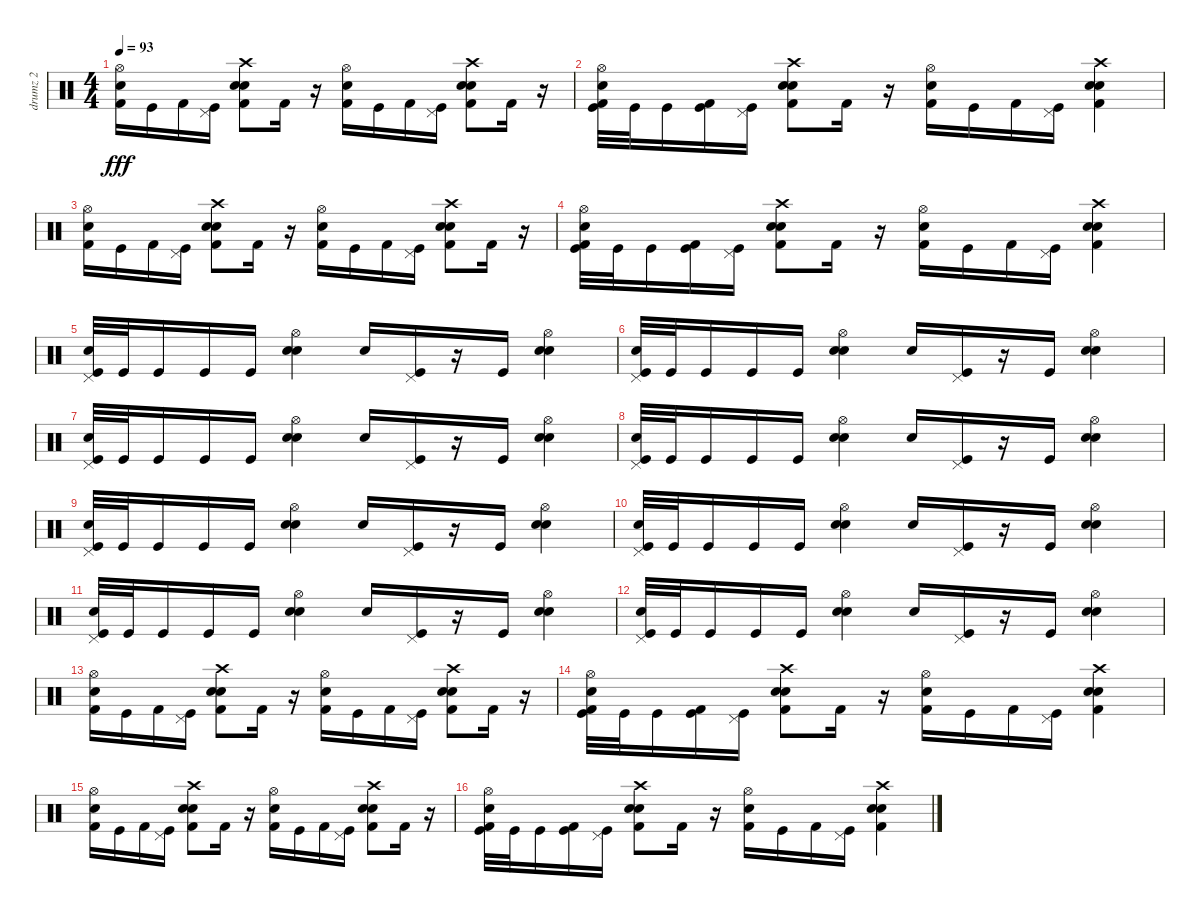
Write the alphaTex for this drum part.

\track ("drumz 2" "drumz 2") {instrument percussion}
\staff {score}
\articulation defaults
\ts (4 4)
\tempo 93
\clef neutral
\ks c
("Hi-Hat (open)" "Hand Clap (hit)" "Kick (hit) 2").16{dy fff} "Kick (hit)".16 "Kick (hit) 2".16 ("Kick (hit)" "Pedal Hi-Hat (hit)").16 ("Snare (hit) 2" "Crash high (hit)" "Hand Clap (hit)" "Kick (hit) 2").8 "Kick (hit) 2".16 r.16 ("Hi-Hat (open)" "Hand Clap (hit)" "Kick (hit) 2").16 "Kick (hit)".16 "Kick (hit) 2".16 ("Kick (hit)" "Pedal Hi-Hat (hit)").16 ("Snare (hit) 2" "Crash high (hit)" "Hand Clap (hit)" "Kick (hit) 2").8 "Kick (hit) 2".16 r.16 |
("Kick (hit)" "Hand Clap (hit)" "Hi-Hat (open)" "Kick (hit) 2").32 "Kick (hit)".32 "Kick (hit)".16 ("Kick (hit)" "Kick (hit) 2").16 ("Kick (hit)" "Pedal Hi-Hat (hit)").16 ("Snare (hit) 2" "Hand Clap (hit)" "Crash high (hit)" "Kick (hit) 2").8 "Kick (hit) 2".16 r.16 ("Hand Clap (hit)" "Hi-Hat (open)" "Kick (hit) 2").16 "Kick (hit)".16 "Kick (hit) 2".16 ("Kick (hit)" "Pedal Hi-Hat (hit)").16 ("Snare (hit) 2" "Hand Clap (hit)" "Crash high (hit)" "Kick (hit) 2").4 |
("Hi-Hat (open)" "Hand Clap (hit)" "Kick (hit) 2").16 "Kick (hit)".16 "Kick (hit) 2".16 ("Kick (hit)" "Pedal Hi-Hat (hit)").16 ("Snare (hit) 2" "Crash high (hit)" "Hand Clap (hit)" "Kick (hit) 2").8 "Kick (hit) 2".16 r.16 ("Hi-Hat (open)" "Hand Clap (hit)" "Kick (hit) 2").16 "Kick (hit)".16 "Kick (hit) 2".16 ("Kick (hit)" "Pedal Hi-Hat (hit)").16 ("Snare (hit) 2" "Crash high (hit)" "Hand Clap (hit)" "Kick (hit) 2").8 "Kick (hit) 2".16 r.16 |
("Kick (hit)" "Hand Clap (hit)" "Hi-Hat (open)" "Kick (hit) 2").32 "Kick (hit)".32 "Kick (hit)".16 ("Kick (hit)" "Kick (hit) 2").16 ("Kick (hit)" "Pedal Hi-Hat (hit)").16 ("Snare (hit) 2" "Hand Clap (hit)" "Crash high (hit)" "Kick (hit) 2").8 "Kick (hit) 2".16 r.16 ("Hand Clap (hit)" "Hi-Hat (open)" "Kick (hit) 2").16 "Kick (hit)".16 "Kick (hit) 2".16 ("Kick (hit)" "Pedal Hi-Hat (hit)").16 ("Snare (hit) 2" "Hand Clap (hit)" "Crash high (hit)" "Kick (hit) 2").4 |
("Kick (hit)" "Pedal Hi-Hat (hit)" "Hand Clap (hit)").32 "Kick (hit)".32 "Kick (hit)".16 "Kick (hit)".16 "Kick (hit)".16 ("Snare (hit) 2" "Hi-Hat (open)" "Hand Clap (hit)").4 "Hand Clap (hit)".16 ("Kick (hit)" "Pedal Hi-Hat (hit)").16 r.16 "Kick (hit)".16 ("Snare (hit) 2" "Hi-Hat (open)" "Hand Clap (hit)").4 |
("Kick (hit)" "Pedal Hi-Hat (hit)" "Hand Clap (hit)").32 "Kick (hit)".32 "Kick (hit)".16 "Kick (hit)".16 "Kick (hit)".16 ("Snare (hit) 2" "Hi-Hat (open)" "Hand Clap (hit)").4 "Hand Clap (hit)".16 ("Kick (hit)" "Pedal Hi-Hat (hit)").16 r.16 "Kick (hit)".16 ("Snare (hit) 2" "Hi-Hat (open)" "Hand Clap (hit)").4 |
("Kick (hit)" "Pedal Hi-Hat (hit)" "Hand Clap (hit)").32 "Kick (hit)".32 "Kick (hit)".16 "Kick (hit)".16 "Kick (hit)".16 ("Snare (hit) 2" "Hi-Hat (open)" "Hand Clap (hit)").4 "Hand Clap (hit)".16 ("Kick (hit)" "Pedal Hi-Hat (hit)").16 r.16 "Kick (hit)".16 ("Snare (hit) 2" "Hi-Hat (open)" "Hand Clap (hit)").4 |
("Kick (hit)" "Pedal Hi-Hat (hit)" "Hand Clap (hit)").32 "Kick (hit)".32 "Kick (hit)".16 "Kick (hit)".16 "Kick (hit)".16 ("Snare (hit) 2" "Hi-Hat (open)" "Hand Clap (hit)").4 "Hand Clap (hit)".16 ("Kick (hit)" "Pedal Hi-Hat (hit)").16 r.16 "Kick (hit)".16 ("Snare (hit) 2" "Hi-Hat (open)" "Hand Clap (hit)").4 |
("Kick (hit)" "Pedal Hi-Hat (hit)" "Hand Clap (hit)").32 "Kick (hit)".32 "Kick (hit)".16 "Kick (hit)".16 "Kick (hit)".16 ("Snare (hit) 2" "Hi-Hat (open)" "Hand Clap (hit)").4 "Hand Clap (hit)".16 ("Kick (hit)" "Pedal Hi-Hat (hit)").16 r.16 "Kick (hit)".16 ("Snare (hit) 2" "Hi-Hat (open)" "Hand Clap (hit)").4 |
("Kick (hit)" "Pedal Hi-Hat (hit)" "Hand Clap (hit)").32 "Kick (hit)".32 "Kick (hit)".16 "Kick (hit)".16 "Kick (hit)".16 ("Snare (hit) 2" "Hi-Hat (open)" "Hand Clap (hit)").4 "Hand Clap (hit)".16 ("Kick (hit)" "Pedal Hi-Hat (hit)").16 r.16 "Kick (hit)".16 ("Snare (hit) 2" "Hi-Hat (open)" "Hand Clap (hit)").4 |
("Kick (hit)" "Pedal Hi-Hat (hit)" "Hand Clap (hit)").32 "Kick (hit)".32 "Kick (hit)".16 "Kick (hit)".16 "Kick (hit)".16 ("Snare (hit) 2" "Hi-Hat (open)" "Hand Clap (hit)").4 "Hand Clap (hit)".16 ("Kick (hit)" "Pedal Hi-Hat (hit)").16 r.16 "Kick (hit)".16 ("Snare (hit) 2" "Hi-Hat (open)" "Hand Clap (hit)").4 |
("Kick (hit)" "Pedal Hi-Hat (hit)" "Hand Clap (hit)").32 "Kick (hit)".32 "Kick (hit)".16 "Kick (hit)".16 "Kick (hit)".16 ("Snare (hit) 2" "Hi-Hat (open)" "Hand Clap (hit)").4 "Hand Clap (hit)".16 ("Kick (hit)" "Pedal Hi-Hat (hit)").16 r.16 "Kick (hit)".16 ("Snare (hit) 2" "Hi-Hat (open)" "Hand Clap (hit)").4 |
("Hi-Hat (open)" "Hand Clap (hit)" "Kick (hit) 2").16 "Kick (hit)".16 "Kick (hit) 2".16 ("Kick (hit)" "Pedal Hi-Hat (hit)").16 ("Snare (hit) 2" "Crash high (hit)" "Hand Clap (hit)" "Kick (hit) 2").8 "Kick (hit) 2".16 r.16 ("Hi-Hat (open)" "Hand Clap (hit)" "Kick (hit) 2").16 "Kick (hit)".16 "Kick (hit) 2".16 ("Kick (hit)" "Pedal Hi-Hat (hit)").16 ("Snare (hit) 2" "Crash high (hit)" "Hand Clap (hit)" "Kick (hit) 2").8 "Kick (hit) 2".16 r.16 |
("Kick (hit)" "Hand Clap (hit)" "Hi-Hat (open)" "Kick (hit) 2").32 "Kick (hit)".32 "Kick (hit)".16 ("Kick (hit)" "Kick (hit) 2").16 ("Kick (hit)" "Pedal Hi-Hat (hit)").16 ("Snare (hit) 2" "Hand Clap (hit)" "Crash high (hit)" "Kick (hit) 2").8 "Kick (hit) 2".16 r.16 ("Hand Clap (hit)" "Hi-Hat (open)" "Kick (hit) 2").16 "Kick (hit)".16 "Kick (hit) 2".16 ("Kick (hit)" "Pedal Hi-Hat (hit)").16 ("Snare (hit) 2" "Hand Clap (hit)" "Crash high (hit)" "Kick (hit) 2").4 |
("Hi-Hat (open)" "Hand Clap (hit)" "Kick (hit) 2").16 "Kick (hit)".16 "Kick (hit) 2".16 ("Kick (hit)" "Pedal Hi-Hat (hit)").16 ("Snare (hit) 2" "Crash high (hit)" "Hand Clap (hit)" "Kick (hit) 2").8 "Kick (hit) 2".16 r.16 ("Hi-Hat (open)" "Hand Clap (hit)" "Kick (hit) 2").16 "Kick (hit)".16 "Kick (hit) 2".16 ("Kick (hit)" "Pedal Hi-Hat (hit)").16 ("Snare (hit) 2" "Crash high (hit)" "Hand Clap (hit)" "Kick (hit) 2").8 "Kick (hit) 2".16 r.16 |
("Kick (hit)" "Hand Clap (hit)" "Hi-Hat (open)" "Kick (hit) 2").32 "Kick (hit)".32 "Kick (hit)".16 ("Kick (hit)" "Kick (hit) 2").16 ("Kick (hit)" "Pedal Hi-Hat (hit)").16 ("Snare (hit) 2" "Hand Clap (hit)" "Crash high (hit)" "Kick (hit) 2").8 "Kick (hit) 2".16 r.16 ("Hand Clap (hit)" "Hi-Hat (open)" "Kick (hit) 2").16 "Kick (hit)".16 "Kick (hit) 2".16 ("Kick (hit)" "Pedal Hi-Hat (hit)").16 ("Snare (hit) 2" "Hand Clap (hit)" "Crash high (hit)" "Kick (hit) 2").4
